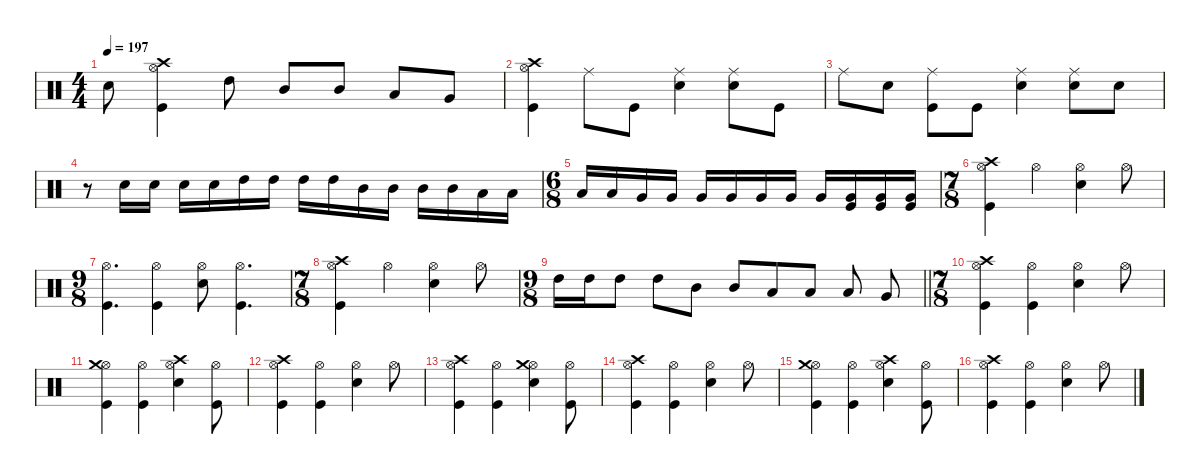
\defaultSystemsLayout 4
\hideDynamics
\bracketExtendMode nobrackets
\singleTrackTrackNamePolicy hidden
\multiTrackTrackNamePolicy hidden
\firstSystemTrackNameMode fullname
\firstSystemTrackNameOrientation horizontal
\otherSystemsTrackNameOrientation horizontal
\track ("Drums" "drm.") {defaultSystemsLayout 4 instrument percussion}
\staff {score}
\articulation defaults
\ts (4 4)
\tempo 197
\clef neutral
\ks c "Snare (hit) 2".8{dy f beam Down}
("Crash high (hit)" "Hi-Hat (open)" "Kick (hit)").4{beam Down} "High Tom (hit)".8{beam Down} "Mid Tom (hit)".8{beam Up} "Mid Tom (hit)".8{beam Up} "Low Tom (hit)".8{beam Up} "Very Low Tom (hit)".8{beam Up} |
("Hi-Hat (open)" "Crash high (hit)" "Kick (hit)").4{beam Down} "Ride (middle)".8{beam Down} "Kick (hit)".8{beam Down} ("Ride (middle)" "Snare (hit) 2").4{beam Down} ("Ride (middle)" "Snare (hit) 2").8{beam Down} "Kick (hit)".8{beam Down} |
"Ride (middle)".8{beam Down} "Snare (hit) 2".8{beam Down} ("Ride (middle)" "Kick (hit)").8{beam Down} "Kick (hit)".8{beam Down} ("Ride (middle)" "Snare (hit) 2").4{beam Down} ("Ride (middle)" "Snare (hit) 2").8{beam Down} "Snare (hit) 2".8{beam Down} |
r.8{beam Down} "Snare (hit) 2".16{beam Down} "Snare (hit) 2".16{beam Down} "Snare (hit) 2".16{beam Down} "Snare (hit) 2".16{beam Down} "High Tom (hit)".16{beam Down} "High Tom (hit)".16{beam Down} "High Tom (hit)".16{beam Down} "High Tom (hit)".16{beam Down} "Mid Tom (hit)".16{beam Down} "Mid Tom (hit)".16{beam Down} "Mid Tom (hit)".16{beam Down} "Mid Tom (hit)".16{beam Down} "Low Tom (hit)".16{beam Down} "Low Tom (hit)".16{beam Down} |
\ts (6 8)
\beaming (8 2 2 3)
"Low Tom (hit)".16{beam Up} "Low Tom (hit)".16{beam Up} "Very Low Tom (hit)".16{beam Up} "Very Low Tom (hit)".16{beam Up} "Very Low Tom (hit)".16{beam Up} "Very Low Tom (hit)".16{beam Up} "Very Low Tom (hit)".16{beam Up} "Very Low Tom (hit)".16{beam Up} "Very Low Tom (hit)".16{beam Up} ("Kick (hit)" "Very Low Tom (hit)").16{beam Up} ("Kick (hit)" "Very Low Tom (hit)").16{beam Up} ("Kick (hit)" "Very Low Tom (hit)").16{beam Up} |
\ts (7 8)
\beaming (8 2 2 3)
("Crash high (hit)" "Hi-Hat (open)" "Kick (hit)").4{beam Down} "Hi-Hat (open)".4{beam Down} ("Hi-Hat (open)" "Snare (hit) 2").4{beam Down} "Hi-Hat (open)".8{beam Down} |
\ts (9 8)
\beaming (8 2 2 3)
("Hi-Hat (open)" "Kick (hit)").4{d beam Down} ("Hi-Hat (open)" "Kick (hit)").4{beam Down} ("Hi-Hat (open)" "Snare (hit) 2").8{beam Down} ("Hi-Hat (open)" "Kick (hit)").4{d beam Down} |
\ts (7 8)
\beaming (8 2 2 3)
("Crash high (hit)" "Hi-Hat (open)" "Kick (hit)").4{beam Down} "Hi-Hat (open)".4{beam Down} ("Hi-Hat (open)" "Snare (hit) 2").4{beam Down} "Hi-Hat (open)".8{beam Down} |
\ts (9 8)
\beaming (8 2 2 3)
\barLineRight lightlight "High Tom (hit)".16{beam Down} "High Tom (hit)".16{beam Down} "High Tom (hit)".8{beam Down} "High Tom (hit)".8{beam Down} "Mid Tom (hit)".8{beam Down} "Mid Tom (hit)".8{beam Up} "Low Tom (hit)".8{beam Up} "Low Tom (hit)".8{beam Up} "Low Tom (hit)".8{beam Up} "Very Low Tom (hit)".8{beam Up}
|
\ts (7 8)
\beaming (8 2 2 3)
("Hi-Hat (open)" "Crash high (hit)" "Kick (hit)").4{beam Down} ("Hi-Hat (open)" "Kick (hit)").4{beam Down} ("Hi-Hat (open)" "Snare (hit) 2").4{beam Down} "Hi-Hat (open)".8{beam Down} |
("Hi-Hat (open)" "Crash medium (hit)" "Kick (hit)").4{beam Down} ("Hi-Hat (open)" "Kick (hit)").4{beam Down} ("Hi-Hat (open)" "Crash high (hit)" "Snare (hit) 2").4{beam Down} ("Hi-Hat (open)" "Kick (hit)").8{beam Down} |
("Hi-Hat (open)" "Crash high (hit)" "Kick (hit)").4{beam Down} ("Hi-Hat (open)" "Kick (hit)").4{beam Down} ("Hi-Hat (open)" "Snare (hit) 2").4{beam Down} "Hi-Hat (open)".8{beam Down} |
("Hi-Hat (open)" "Crash high (hit)" "Kick (hit)").4{beam Down} ("Hi-Hat (open)" "Kick (hit)").4{beam Down} ("Hi-Hat (open)" "Crash medium (hit)" "Snare (hit) 2").4{beam Down} ("Hi-Hat (open)" "Kick (hit)").8{beam Down} |
("Hi-Hat (open)" "Crash high (hit)" "Kick (hit)").4{beam Down} ("Hi-Hat (open)" "Kick (hit)").4{beam Down} ("Hi-Hat (open)" "Snare (hit) 2").4{beam Down} "Hi-Hat (open)".8{beam Down} |
("Hi-Hat (open)" "Crash medium (hit)" "Kick (hit)").4{beam Down} ("Hi-Hat (open)" "Kick (hit)").4{beam Down} ("Hi-Hat (open)" "Crash high (hit)" "Snare (hit) 2").4{beam Down} ("Hi-Hat (open)" "Kick (hit)").8{beam Down} |
("Hi-Hat (open)" "Crash high (hit)" "Kick (hit)").4{beam Down} ("Hi-Hat (open)" "Kick (hit)").4{beam Down} ("Hi-Hat (open)" "Snare (hit) 2").4{beam Down} "Hi-Hat (open)".8{beam Down}
